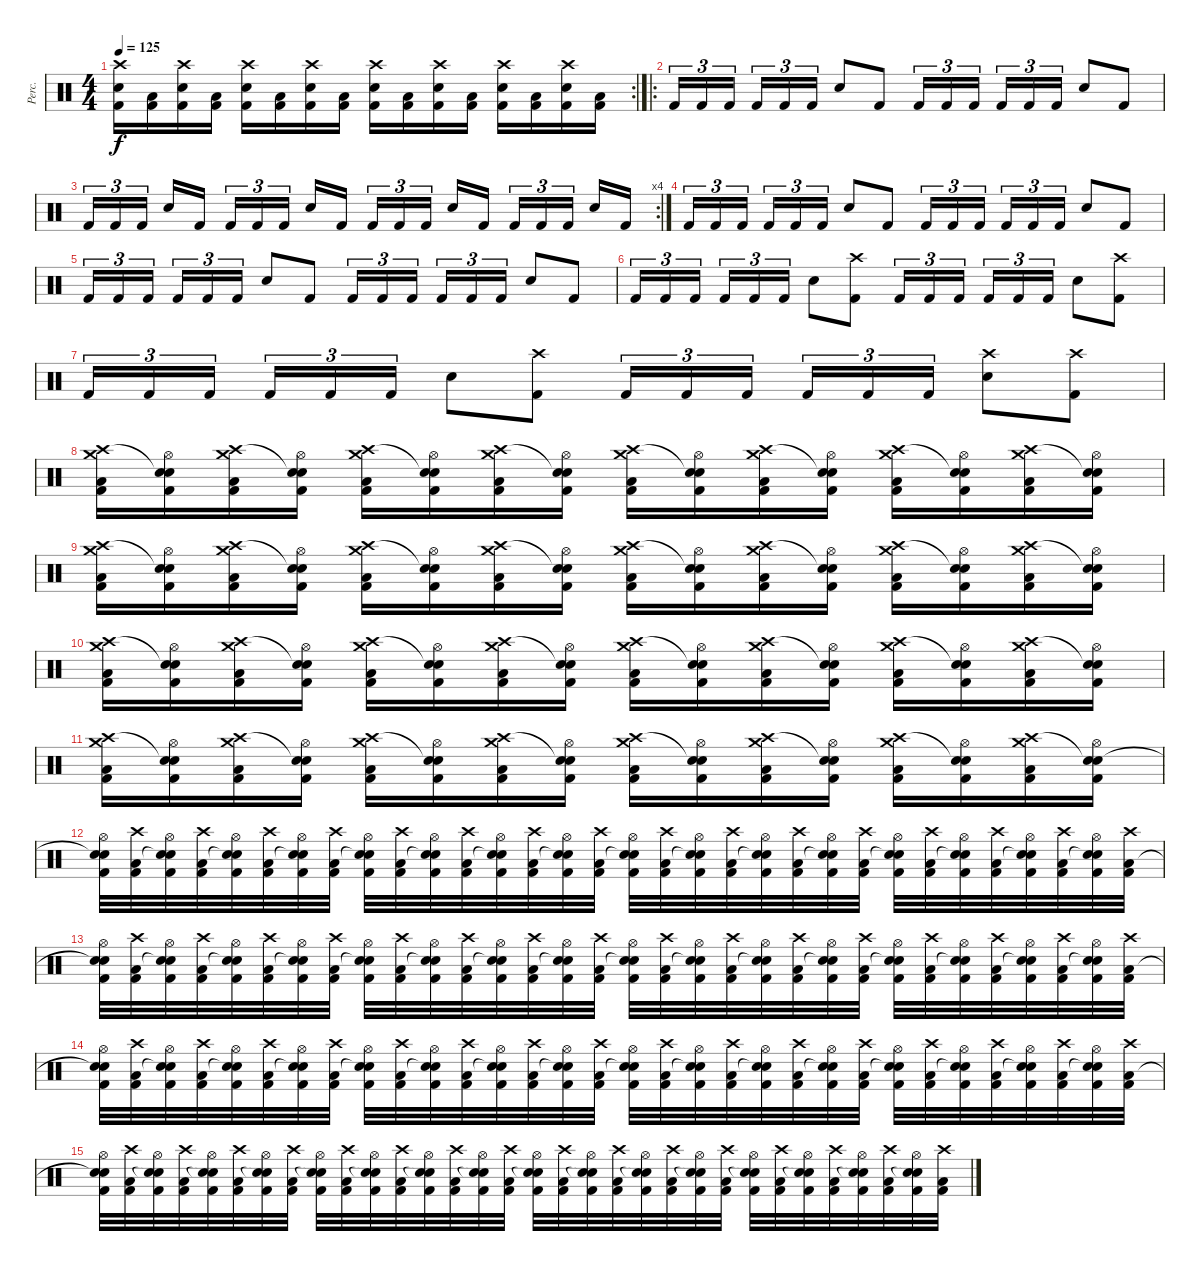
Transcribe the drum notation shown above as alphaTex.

\track ("Perc." "Perc.") {instrument percussion}
\staff {score}
\articulation defaults
\rc 2
\ts (4 4)
\tempo 125
\clef neutral
\ks c
("Crash high (hit)" "Snare (hit) 2" "Kick (hit) 2").16{dy f} ("Low Floor Tom (hit)" "Kick (hit) 2").16 ("Crash high (hit)" "Snare (hit) 2" "Kick (hit) 2").16 ("Low Floor Tom (hit)" "Kick (hit) 2").16 ("Crash high (hit)" "Snare (hit) 2" "Kick (hit) 2").16 ("Low Floor Tom (hit)" "Kick (hit) 2").16 ("Crash high (hit)" "Snare (hit) 2" "Kick (hit) 2").16 ("Low Floor Tom (hit)" "Kick (hit) 2").16 ("Crash high (hit)" "Snare (hit) 2" "Kick (hit) 2").16 ("Low Floor Tom (hit)" "Kick (hit) 2").16 ("Crash high (hit)" "Snare (hit) 2" "Kick (hit) 2").16 ("Low Floor Tom (hit)" "Kick (hit) 2").16 ("Crash high (hit)" "Snare (hit) 2" "Kick (hit) 2").16 ("Low Floor Tom (hit)" "Kick (hit) 2").16 ("Crash high (hit)" "Snare (hit) 2" "Kick (hit) 2").16 ("Low Floor Tom (hit)" "Kick (hit) 2").16 |
\ro "Kick (hit) 2".16{tu (3 2)} "Kick (hit) 2".16{tu (3 2)} "Kick (hit) 2".16{tu (3 2)} "Kick (hit) 2".16{tu (3 2)} "Kick (hit) 2".16{tu (3 2)} "Kick (hit) 2".16{tu (3 2)} "Snare (hit) 2".8 "Kick (hit) 2".8 "Kick (hit) 2".16{tu (3 2)} "Kick (hit) 2".16{tu (3 2)} "Kick (hit) 2".16{tu (3 2)} "Kick (hit) 2".16{tu (3 2)} "Kick (hit) 2".16{tu (3 2)} "Kick (hit) 2".16{tu (3 2)} "Snare (hit) 2".8 "Kick (hit) 2".8
|
\rc 4 "Kick (hit) 2".16{tu (3 2)} "Kick (hit) 2".16{tu (3 2)} "Kick (hit) 2".16{tu (3 2)} "Snare (hit) 2".16 "Kick (hit) 2".16 "Kick (hit) 2".16{tu (3 2)} "Kick (hit) 2".16{tu (3 2)} "Kick (hit) 2".16{tu (3 2)} "Snare (hit) 2".16 "Kick (hit) 2".16 "Kick (hit) 2".16{tu (3 2)} "Kick (hit) 2".16{tu (3 2)} "Kick (hit) 2".16{tu (3 2)} "Snare (hit) 2".16 "Kick (hit) 2".16 "Kick (hit) 2".16{tu (3 2)} "Kick (hit) 2".16{tu (3 2)} "Kick (hit) 2".16{tu (3 2)} "Snare (hit) 2".16 "Kick (hit) 2".16
|
"Kick (hit) 2".16{tu (3 2)} "Kick (hit) 2".16{tu (3 2)} "Kick (hit) 2".16{tu (3 2)} "Kick (hit) 2".16{tu (3 2)} "Kick (hit) 2".16{tu (3 2)} "Kick (hit) 2".16{tu (3 2)} "Snare (hit) 2".8 "Kick (hit) 2".8 "Kick (hit) 2".16{tu (3 2)} "Kick (hit) 2".16{tu (3 2)} "Kick (hit) 2".16{tu (3 2)} "Kick (hit) 2".16{tu (3 2)} "Kick (hit) 2".16{tu (3 2)} "Kick (hit) 2".16{tu (3 2)} "Snare (hit) 2".8 "Kick (hit) 2".8 |
"Kick (hit) 2".16{tu (3 2)} "Kick (hit) 2".16{tu (3 2)} "Kick (hit) 2".16{tu (3 2)} "Kick (hit) 2".16{tu (3 2)} "Kick (hit) 2".16{tu (3 2)} "Kick (hit) 2".16{tu (3 2)} "Snare (hit) 2".8 "Kick (hit) 2".8 "Kick (hit) 2".16{tu (3 2)} "Kick (hit) 2".16{tu (3 2)} "Kick (hit) 2".16{tu (3 2)} "Kick (hit) 2".16{tu (3 2)} "Kick (hit) 2".16{tu (3 2)} "Kick (hit) 2".16{tu (3 2)} "Snare (hit) 2".8 "Kick (hit) 2".8 |
"Kick (hit) 2".16{tu (3 2)} "Kick (hit) 2".16{tu (3 2)} "Kick (hit) 2".16{tu (3 2)} "Kick (hit) 2".16{tu (3 2)} "Kick (hit) 2".16{tu (3 2)} "Kick (hit) 2".16{tu (3 2)} "Snare (hit) 2".8 ("Crash high (hit)" "Kick (hit) 2").8 "Kick (hit) 2".16{tu (3 2)} "Kick (hit) 2".16{tu (3 2)} "Kick (hit) 2".16{tu (3 2)} "Kick (hit) 2".16{tu (3 2)} "Kick (hit) 2".16{tu (3 2)} "Kick (hit) 2".16{tu (3 2)} "Snare (hit) 2".8 ("Crash high (hit)" "Kick (hit) 2").8 |
"Kick (hit) 2".16{tu (3 2)} "Kick (hit) 2".16{tu (3 2)} "Kick (hit) 2".16{tu (3 2)} "Kick (hit) 2".16{tu (3 2)} "Kick (hit) 2".16{tu (3 2)} "Kick (hit) 2".16{tu (3 2)} "Snare (hit) 2".8 ("Crash high (hit)" "Kick (hit) 2").8 "Kick (hit) 2".16{tu (3 2)} "Kick (hit) 2".16{tu (3 2)} "Kick (hit) 2".16{tu (3 2)} "Kick (hit) 2".16{tu (3 2)} "Kick (hit) 2".16{tu (3 2)} "Kick (hit) 2".16{tu (3 2)} ("Crash high (hit)" "Snare (hit) 2").8 ("Crash high (hit)" "Kick (hit) 2").8 |
("Crash medium (hit)" "Crash high (hit)" "Low Floor Tom (hit)" "Kick (hit) 2").16 ("Hi-Hat (open)" "Snare (hit)"{t} "Snare (hit) 2" "Kick (hit) 2").16 ("Crash medium (hit)" "Crash high (hit)" "Low Floor Tom (hit)" "Kick (hit) 2").16 ("Hi-Hat (open)" "Snare (hit)"{t} "Snare (hit) 2" "Kick (hit) 2").16 ("Crash medium (hit)" "Crash high (hit)" "Low Floor Tom (hit)" "Kick (hit) 2").16 ("Hi-Hat (open)" "Snare (hit)"{t} "Snare (hit) 2" "Kick (hit) 2").16 ("Crash medium (hit)" "Crash high (hit)" "Low Floor Tom (hit)" "Kick (hit) 2").16 ("Hi-Hat (open)" "Snare (hit)"{t} "Snare (hit) 2" "Kick (hit) 2").16 ("Crash medium (hit)" "Crash high (hit)" "Low Floor Tom (hit)" "Kick (hit) 2").16 ("Hi-Hat (open)" "Snare (hit)"{t} "Snare (hit) 2" "Kick (hit) 2").16 ("Crash medium (hit)" "Crash high (hit)" "Low Floor Tom (hit)" "Kick (hit) 2").16 ("Hi-Hat (open)" "Snare (hit)"{t} "Snare (hit) 2" "Kick (hit) 2").16 ("Crash medium (hit)" "Crash high (hit)" "Low Floor Tom (hit)" "Kick (hit) 2").16 ("Hi-Hat (open)" "Snare (hit)"{t} "Snare (hit) 2" "Kick (hit) 2").16 ("Crash medium (hit)" "Crash high (hit)" "Low Floor Tom (hit)" "Kick (hit) 2").16 ("Hi-Hat (open)" "Snare (hit)"{t} "Snare (hit) 2" "Kick (hit) 2").16 |
("Crash medium (hit)" "Crash high (hit)" "Low Floor Tom (hit)" "Kick (hit) 2").16 ("Hi-Hat (open)" "Snare (hit)"{t} "Snare (hit) 2" "Kick (hit) 2").16 ("Crash medium (hit)" "Crash high (hit)" "Low Floor Tom (hit)" "Kick (hit) 2").16 ("Hi-Hat (open)" "Snare (hit)"{t} "Snare (hit) 2" "Kick (hit) 2").16 ("Crash medium (hit)" "Crash high (hit)" "Low Floor Tom (hit)" "Kick (hit) 2").16 ("Hi-Hat (open)" "Snare (hit)"{t} "Snare (hit) 2" "Kick (hit) 2").16 ("Crash medium (hit)" "Crash high (hit)" "Low Floor Tom (hit)" "Kick (hit) 2").16 ("Hi-Hat (open)" "Snare (hit)"{t} "Snare (hit) 2" "Kick (hit) 2").16 ("Crash medium (hit)" "Crash high (hit)" "Low Floor Tom (hit)" "Kick (hit) 2").16 ("Hi-Hat (open)" "Snare (hit)"{t} "Snare (hit) 2" "Kick (hit) 2").16 ("Crash medium (hit)" "Crash high (hit)" "Low Floor Tom (hit)" "Kick (hit) 2").16 ("Hi-Hat (open)" "Snare (hit)"{t} "Snare (hit) 2" "Kick (hit) 2").16 ("Crash medium (hit)" "Crash high (hit)" "Low Floor Tom (hit)" "Kick (hit) 2").16 ("Hi-Hat (open)" "Snare (hit)"{t} "Snare (hit) 2" "Kick (hit) 2").16 ("Crash medium (hit)" "Crash high (hit)" "Low Floor Tom (hit)" "Kick (hit) 2").16 ("Hi-Hat (open)" "Snare (hit)"{t} "Snare (hit) 2" "Kick (hit) 2").16 |
("Crash medium (hit)" "Crash high (hit)" "Low Floor Tom (hit)" "Kick (hit) 2").16 ("Hi-Hat (open)" "Snare (hit)"{t} "Snare (hit) 2" "Kick (hit) 2").16 ("Crash medium (hit)" "Crash high (hit)" "Low Floor Tom (hit)" "Kick (hit) 2").16 ("Hi-Hat (open)" "Snare (hit)"{t} "Snare (hit) 2" "Kick (hit) 2").16 ("Crash medium (hit)" "Crash high (hit)" "Low Floor Tom (hit)" "Kick (hit) 2").16 ("Hi-Hat (open)" "Snare (hit)"{t} "Snare (hit) 2" "Kick (hit) 2").16 ("Crash medium (hit)" "Crash high (hit)" "Low Floor Tom (hit)" "Kick (hit) 2").16 ("Hi-Hat (open)" "Snare (hit)"{t} "Snare (hit) 2" "Kick (hit) 2").16 ("Crash medium (hit)" "Crash high (hit)" "Low Floor Tom (hit)" "Kick (hit) 2").16 ("Hi-Hat (open)" "Snare (hit)"{t} "Snare (hit) 2" "Kick (hit) 2").16 ("Crash medium (hit)" "Crash high (hit)" "Low Floor Tom (hit)" "Kick (hit) 2").16 ("Hi-Hat (open)" "Snare (hit)"{t} "Snare (hit) 2" "Kick (hit) 2").16 ("Crash medium (hit)" "Crash high (hit)" "Low Floor Tom (hit)" "Kick (hit) 2").16 ("Hi-Hat (open)" "Snare (hit)"{t} "Snare (hit) 2" "Kick (hit) 2").16 ("Crash medium (hit)" "Crash high (hit)" "Low Floor Tom (hit)" "Kick (hit) 2").16 ("Hi-Hat (open)" "Snare (hit)"{t} "Snare (hit) 2" "Kick (hit) 2").16 |
("Crash medium (hit)" "Crash high (hit)" "Low Floor Tom (hit)" "Kick (hit) 2").16 ("Hi-Hat (open)" "Snare (hit)"{t} "Snare (hit) 2" "Kick (hit) 2").16 ("Crash medium (hit)" "Crash high (hit)" "Low Floor Tom (hit)" "Kick (hit) 2").16 ("Hi-Hat (open)" "Snare (hit)"{t} "Snare (hit) 2" "Kick (hit) 2").16 ("Crash medium (hit)" "Crash high (hit)" "Low Floor Tom (hit)" "Kick (hit) 2").16 ("Hi-Hat (open)" "Snare (hit)"{t} "Snare (hit) 2" "Kick (hit) 2").16 ("Crash medium (hit)" "Crash high (hit)" "Low Floor Tom (hit)" "Kick (hit) 2").16 ("Hi-Hat (open)" "Snare (hit)"{t} "Snare (hit) 2" "Kick (hit) 2").16 ("Crash medium (hit)" "Crash high (hit)" "Low Floor Tom (hit)" "Kick (hit) 2").16 ("Hi-Hat (open)" "Snare (hit)"{t} "Snare (hit) 2" "Kick (hit) 2").16 ("Crash medium (hit)" "Crash high (hit)" "Low Floor Tom (hit)" "Kick (hit) 2").16 ("Hi-Hat (open)" "Snare (hit)"{t} "Snare (hit) 2" "Kick (hit) 2").16 ("Crash medium (hit)" "Crash high (hit)" "Low Floor Tom (hit)" "Kick (hit) 2").16 ("Hi-Hat (open)" "Snare (hit)"{t} "Snare (hit) 2" "Kick (hit) 2").16 ("Crash medium (hit)" "Crash high (hit)" "Low Floor Tom (hit)" "Kick (hit) 2").16 ("Hi-Hat (open)" "Snare (hit)"{t} "Snare (hit) 2" "Kick (hit) 2").16 |
("Hi-Hat (open)" "Snare (hit)"{t} "Snare (hit) 2" "Kick (hit) 2").32 ("Crash high (hit)" "Low Floor Tom (hit)" "Kick (hit) 2").32 ("Hi-Hat (open)" "Snare (hit)"{t} "Snare (hit) 2" "Kick (hit) 2").32 ("Crash high (hit)" "Low Floor Tom (hit)" "Kick (hit) 2").32 ("Hi-Hat (open)" "Snare (hit)"{t} "Snare (hit) 2" "Kick (hit) 2").32 ("Crash high (hit)" "Low Floor Tom (hit)" "Kick (hit) 2").32 ("Hi-Hat (open)" "Snare (hit)"{t} "Snare (hit) 2" "Kick (hit) 2").32 ("Crash high (hit)" "Low Floor Tom (hit)" "Kick (hit) 2").32 ("Hi-Hat (open)" "Snare (hit)"{t} "Snare (hit) 2" "Kick (hit) 2").32 ("Crash high (hit)" "Low Floor Tom (hit)" "Kick (hit) 2").32 ("Hi-Hat (open)" "Snare (hit)"{t} "Snare (hit) 2" "Kick (hit) 2").32 ("Crash high (hit)" "Low Floor Tom (hit)" "Kick (hit) 2").32 ("Hi-Hat (open)" "Snare (hit)"{t} "Snare (hit) 2" "Kick (hit) 2").32 ("Crash high (hit)" "Low Floor Tom (hit)" "Kick (hit) 2").32 ("Hi-Hat (open)" "Snare (hit)"{t} "Snare (hit) 2" "Kick (hit) 2").32 ("Crash high (hit)" "Low Floor Tom (hit)" "Kick (hit) 2").32 ("Hi-Hat (open)" "Snare (hit)"{t} "Snare (hit) 2" "Kick (hit) 2").32 ("Crash high (hit)" "Low Floor Tom (hit)" "Kick (hit) 2").32 ("Hi-Hat (open)" "Snare (hit)"{t} "Snare (hit) 2" "Kick (hit) 2").32 ("Crash high (hit)" "Low Floor Tom (hit)" "Kick (hit) 2").32 ("Hi-Hat (open)" "Snare (hit)"{t} "Snare (hit) 2" "Kick (hit) 2").32 ("Crash high (hit)" "Low Floor Tom (hit)" "Kick (hit) 2").32 ("Hi-Hat (open)" "Snare (hit)"{t} "Snare (hit) 2" "Kick (hit) 2").32 ("Crash high (hit)" "Low Floor Tom (hit)" "Kick (hit) 2").32 ("Hi-Hat (open)" "Snare (hit)"{t} "Snare (hit) 2" "Kick (hit) 2").32 ("Crash high (hit)" "Low Floor Tom (hit)" "Kick (hit) 2").32 ("Hi-Hat (open)" "Snare (hit)"{t} "Snare (hit) 2" "Kick (hit) 2").32 ("Crash high (hit)" "Low Floor Tom (hit)" "Kick (hit) 2").32 ("Hi-Hat (open)" "Snare (hit)"{t} "Snare (hit) 2" "Kick (hit) 2").32 ("Crash high (hit)" "Low Floor Tom (hit)" "Kick (hit) 2").32 ("Hi-Hat (open)" "Snare (hit)"{t} "Snare (hit) 2" "Kick (hit) 2").32 ("Crash high (hit)" "Low Floor Tom (hit)" "Kick (hit) 2").32 |
("Hi-Hat (open)" "Snare (hit)"{t} "Snare (hit) 2" "Kick (hit) 2").32 ("Crash high (hit)" "Low Floor Tom (hit)" "Kick (hit) 2").32 ("Hi-Hat (open)" "Snare (hit)"{t} "Snare (hit) 2" "Kick (hit) 2").32 ("Crash high (hit)" "Low Floor Tom (hit)" "Kick (hit) 2").32 ("Hi-Hat (open)" "Snare (hit)"{t} "Snare (hit) 2" "Kick (hit) 2").32 ("Crash high (hit)" "Low Floor Tom (hit)" "Kick (hit) 2").32 ("Hi-Hat (open)" "Snare (hit)"{t} "Snare (hit) 2" "Kick (hit) 2").32 ("Crash high (hit)" "Low Floor Tom (hit)" "Kick (hit) 2").32 ("Hi-Hat (open)" "Snare (hit)"{t} "Snare (hit) 2" "Kick (hit) 2").32 ("Crash high (hit)" "Low Floor Tom (hit)" "Kick (hit) 2").32 ("Hi-Hat (open)" "Snare (hit)"{t} "Snare (hit) 2" "Kick (hit) 2").32 ("Crash high (hit)" "Low Floor Tom (hit)" "Kick (hit) 2").32 ("Hi-Hat (open)" "Snare (hit)"{t} "Snare (hit) 2" "Kick (hit) 2").32 ("Crash high (hit)" "Low Floor Tom (hit)" "Kick (hit) 2").32 ("Hi-Hat (open)" "Snare (hit)"{t} "Snare (hit) 2" "Kick (hit) 2").32 ("Crash high (hit)" "Low Floor Tom (hit)" "Kick (hit) 2").32 ("Hi-Hat (open)" "Snare (hit)"{t} "Snare (hit) 2" "Kick (hit) 2").32 ("Crash high (hit)" "Low Floor Tom (hit)" "Kick (hit) 2").32 ("Hi-Hat (open)" "Snare (hit)"{t} "Snare (hit) 2" "Kick (hit) 2").32 ("Crash high (hit)" "Low Floor Tom (hit)" "Kick (hit) 2").32 ("Hi-Hat (open)" "Snare (hit)"{t} "Snare (hit) 2" "Kick (hit) 2").32 ("Crash high (hit)" "Low Floor Tom (hit)" "Kick (hit) 2").32 ("Hi-Hat (open)" "Snare (hit)"{t} "Snare (hit) 2" "Kick (hit) 2").32 ("Crash high (hit)" "Low Floor Tom (hit)" "Kick (hit) 2").32 ("Hi-Hat (open)" "Snare (hit)"{t} "Snare (hit) 2" "Kick (hit) 2").32 ("Crash high (hit)" "Low Floor Tom (hit)" "Kick (hit) 2").32 ("Hi-Hat (open)" "Snare (hit)"{t} "Snare (hit) 2" "Kick (hit) 2").32 ("Crash high (hit)" "Low Floor Tom (hit)" "Kick (hit) 2").32 ("Hi-Hat (open)" "Snare (hit)"{t} "Snare (hit) 2" "Kick (hit) 2").32 ("Crash high (hit)" "Low Floor Tom (hit)" "Kick (hit) 2").32 ("Hi-Hat (open)" "Snare (hit)"{t} "Snare (hit) 2" "Kick (hit) 2").32 ("Crash high (hit)" "Low Floor Tom (hit)" "Kick (hit) 2").32 |
("Hi-Hat (open)" "Snare (hit)"{t} "Snare (hit) 2" "Kick (hit) 2").32 ("Crash high (hit)" "Low Floor Tom (hit)" "Kick (hit) 2").32 ("Hi-Hat (open)" "Snare (hit)"{t} "Snare (hit) 2" "Kick (hit) 2").32 ("Crash high (hit)" "Low Floor Tom (hit)" "Kick (hit) 2").32 ("Hi-Hat (open)" "Snare (hit)"{t} "Snare (hit) 2" "Kick (hit) 2").32 ("Crash high (hit)" "Low Floor Tom (hit)" "Kick (hit) 2").32 ("Hi-Hat (open)" "Snare (hit)"{t} "Snare (hit) 2" "Kick (hit) 2").32 ("Crash high (hit)" "Low Floor Tom (hit)" "Kick (hit) 2").32 ("Hi-Hat (open)" "Snare (hit)"{t} "Snare (hit) 2" "Kick (hit) 2").32 ("Crash high (hit)" "Low Floor Tom (hit)" "Kick (hit) 2").32 ("Hi-Hat (open)" "Snare (hit)"{t} "Snare (hit) 2" "Kick (hit) 2").32 ("Crash high (hit)" "Low Floor Tom (hit)" "Kick (hit) 2").32 ("Hi-Hat (open)" "Snare (hit)"{t} "Snare (hit) 2" "Kick (hit) 2").32 ("Crash high (hit)" "Low Floor Tom (hit)" "Kick (hit) 2").32 ("Hi-Hat (open)" "Snare (hit)"{t} "Snare (hit) 2" "Kick (hit) 2").32 ("Crash high (hit)" "Low Floor Tom (hit)" "Kick (hit) 2").32 ("Hi-Hat (open)" "Snare (hit)"{t} "Snare (hit) 2" "Kick (hit) 2").32 ("Crash high (hit)" "Low Floor Tom (hit)" "Kick (hit) 2").32 ("Hi-Hat (open)" "Snare (hit)"{t} "Snare (hit) 2" "Kick (hit) 2").32 ("Crash high (hit)" "Low Floor Tom (hit)" "Kick (hit) 2").32 ("Hi-Hat (open)" "Snare (hit)"{t} "Snare (hit) 2" "Kick (hit) 2").32 ("Crash high (hit)" "Low Floor Tom (hit)" "Kick (hit) 2").32 ("Hi-Hat (open)" "Snare (hit)"{t} "Snare (hit) 2" "Kick (hit) 2").32 ("Crash high (hit)" "Low Floor Tom (hit)" "Kick (hit) 2").32 ("Hi-Hat (open)" "Snare (hit)"{t} "Snare (hit) 2" "Kick (hit) 2").32 ("Crash high (hit)" "Low Floor Tom (hit)" "Kick (hit) 2").32 ("Hi-Hat (open)" "Snare (hit)"{t} "Snare (hit) 2" "Kick (hit) 2").32 ("Crash high (hit)" "Low Floor Tom (hit)" "Kick (hit) 2").32 ("Hi-Hat (open)" "Snare (hit)"{t} "Snare (hit) 2" "Kick (hit) 2").32 ("Crash high (hit)" "Low Floor Tom (hit)" "Kick (hit) 2").32 ("Hi-Hat (open)" "Snare (hit)"{t} "Snare (hit) 2" "Kick (hit) 2").32 ("Crash high (hit)" "Low Floor Tom (hit)" "Kick (hit) 2").32 |
("Hi-Hat (open)" "Snare (hit)"{t} "Snare (hit) 2" "Kick (hit) 2").32 ("Crash high (hit)" "Low Floor Tom (hit)" "Kick (hit) 2").32 ("Hi-Hat (open)" "Snare (hit)"{t} "Snare (hit) 2" "Kick (hit) 2").32 ("Crash high (hit)" "Low Floor Tom (hit)" "Kick (hit) 2").32 ("Hi-Hat (open)" "Snare (hit)"{t} "Snare (hit) 2" "Kick (hit) 2").32 ("Crash high (hit)" "Low Floor Tom (hit)" "Kick (hit) 2").32 ("Hi-Hat (open)" "Snare (hit)"{t} "Snare (hit) 2" "Kick (hit) 2").32 ("Crash high (hit)" "Low Floor Tom (hit)" "Kick (hit) 2").32 ("Hi-Hat (open)" "Snare (hit)"{t} "Snare (hit) 2" "Kick (hit) 2").32 ("Crash high (hit)" "Low Floor Tom (hit)" "Kick (hit) 2").32 ("Hi-Hat (open)" "Snare (hit)"{t} "Snare (hit) 2" "Kick (hit) 2").32 ("Crash high (hit)" "Low Floor Tom (hit)" "Kick (hit) 2").32 ("Hi-Hat (open)" "Snare (hit)"{t} "Snare (hit) 2" "Kick (hit) 2").32 ("Crash high (hit)" "Low Floor Tom (hit)" "Kick (hit) 2").32 ("Hi-Hat (open)" "Snare (hit)"{t} "Snare (hit) 2" "Kick (hit) 2").32 ("Crash high (hit)" "Low Floor Tom (hit)" "Kick (hit) 2").32 ("Hi-Hat (open)" "Snare (hit)"{t} "Snare (hit) 2" "Kick (hit) 2").32 ("Crash high (hit)" "Low Floor Tom (hit)" "Kick (hit) 2").32 ("Hi-Hat (open)" "Snare (hit)"{t} "Snare (hit) 2" "Kick (hit) 2").32 ("Crash high (hit)" "Low Floor Tom (hit)" "Kick (hit) 2").32 ("Hi-Hat (open)" "Snare (hit)"{t} "Snare (hit) 2" "Kick (hit) 2").32 ("Crash high (hit)" "Low Floor Tom (hit)" "Kick (hit) 2").32 ("Hi-Hat (open)" "Snare (hit)"{t} "Snare (hit) 2" "Kick (hit) 2").32 ("Crash high (hit)" "Low Floor Tom (hit)" "Kick (hit) 2").32 ("Hi-Hat (open)" "Snare (hit)"{t} "Snare (hit) 2" "Kick (hit) 2").32 ("Crash high (hit)" "Low Floor Tom (hit)" "Kick (hit) 2").32 ("Hi-Hat (open)" "Snare (hit)"{t} "Snare (hit) 2" "Kick (hit) 2").32 ("Crash high (hit)" "Low Floor Tom (hit)" "Kick (hit) 2").32 ("Hi-Hat (open)" "Snare (hit)"{t} "Snare (hit) 2" "Kick (hit) 2").32 ("Crash high (hit)" "Low Floor Tom (hit)" "Kick (hit) 2").32 ("Hi-Hat (open)" "Snare (hit)"{t} "Snare (hit) 2" "Kick (hit) 2").32 ("Crash high (hit)" "Low Floor Tom (hit)" "Kick (hit) 2").32
